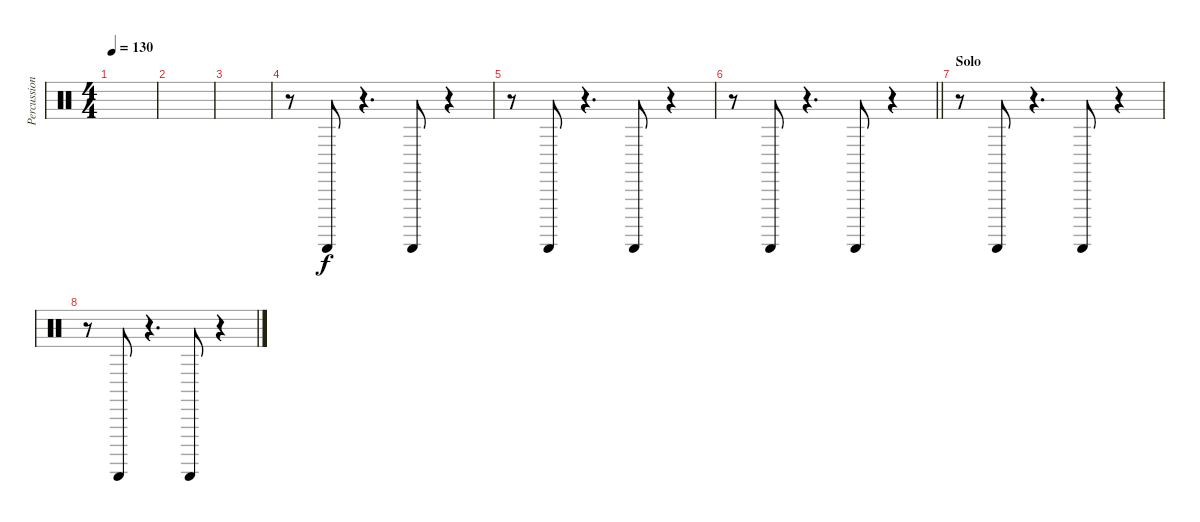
\track ("Percussion" "Percussion") {instrument percussion}
\staff {score}
\articulation defaults
\ts (4 4)
\tempo 130
\clef neutral
\ks c
|
|
|
r.8 "Guiro (scrap-return)".8{volume 10} r.4{d} "Guiro (scrap-return)".8{volume 11} r.4 |
r.8 "Guiro (scrap-return)".8{volume 10} r.4{d} "Guiro (scrap-return)".8{volume 11} r.4 |
\barLineRight lightlight
r.8 "Guiro (scrap-return)".8{volume 10} r.4{d} "Guiro (scrap-return)".8{volume 11} r.4 |
\section ("" "Solo")
r.8 "Guiro (scrap-return)".8{volume 10} r.4{d} "Guiro (scrap-return)".8{volume 11} r.4 |
r.8 "Guiro (scrap-return)".8{volume 10} r.4{d} "Guiro (scrap-return)".8{volume 11} r.4
